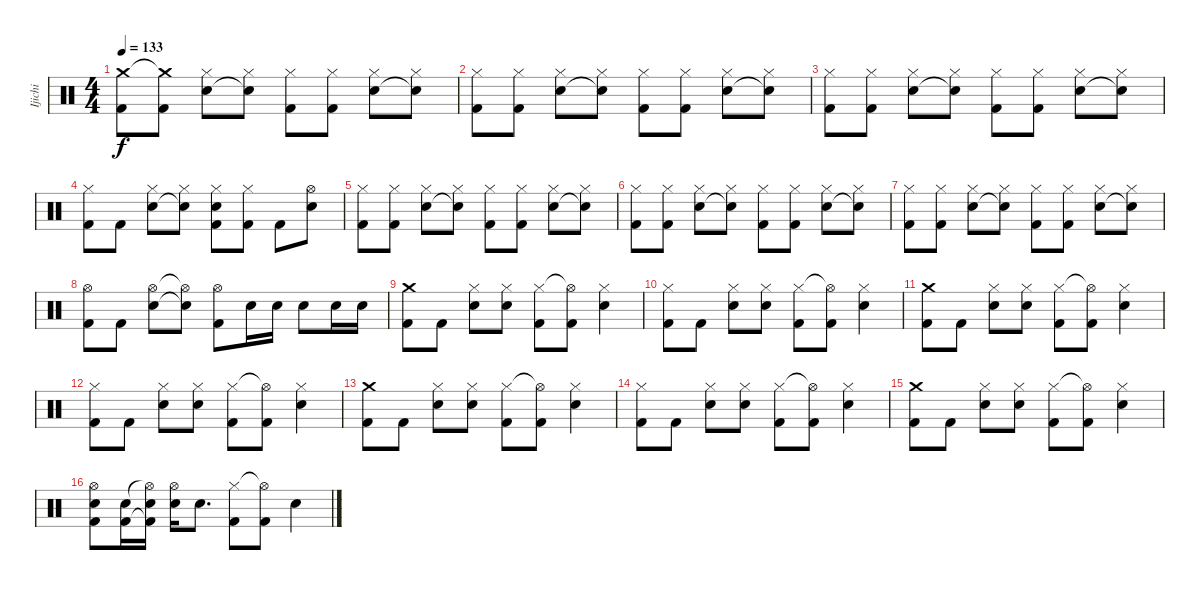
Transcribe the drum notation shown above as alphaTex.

\track ("Ijichi" "Ijichi") {instrument percussion}
\staff {score}
\articulation defaults
\ts (4 4)
\tempo 133
\clef neutral
\ks c
("Kick (hit) 2" "Crash medium (hit)").8{dy f} ("Kick (hit) 2" "Crash medium (hit)"{t}).8 ("Hi-Hat (closed)" "Electric Snare (hit)").8 ("Hi-Hat (closed)" "Electric Snare (hit)"{t}).8 ("Kick (hit) 2" "Hi-Hat (closed)").8 ("Kick (hit) 2" "Hi-Hat (closed)").8 ("Hi-Hat (closed)" "Electric Snare (hit)").8 ("Hi-Hat (closed)" "Electric Snare (hit)"{t}).8 |
("Kick (hit) 2" "Hi-Hat (closed)").8 ("Kick (hit) 2" "Hi-Hat (closed)").8 ("Hi-Hat (closed)" "Electric Snare (hit)").8 ("Hi-Hat (closed)" "Electric Snare (hit)"{t}).8 ("Kick (hit) 2" "Hi-Hat (closed)").8 ("Kick (hit) 2" "Hi-Hat (closed)").8 ("Hi-Hat (closed)" "Electric Snare (hit)").8 ("Hi-Hat (closed)" "Electric Snare (hit)"{t}).8 |
("Kick (hit) 2" "Hi-Hat (closed)").8 ("Kick (hit) 2" "Hi-Hat (closed)").8 ("Hi-Hat (closed)" "Electric Snare (hit)").8 ("Hi-Hat (closed)" "Electric Snare (hit)"{t}).8 ("Kick (hit) 2" "Hi-Hat (closed)").8 ("Kick (hit) 2" "Hi-Hat (closed)").8 ("Hi-Hat (closed)" "Electric Snare (hit)").8 ("Hi-Hat (closed)" "Electric Snare (hit)"{t}).8 |
("Kick (hit) 2" "Hi-Hat (closed)").8 "Kick (hit) 2".8 ("Hi-Hat (closed)" "Electric Snare (hit)").8 ("Hi-Hat (closed)" "Electric Snare (hit)"{t}).8 ("Kick (hit) 2" "Hi-Hat (closed)" "Electric Snare (hit)").8 ("Kick (hit) 2" "Hi-Hat (closed)").8 "Kick (hit) 2".8 ("Hi-Hat (open)" "Electric Snare (hit)").8 |
("Kick (hit) 2" "Hi-Hat (closed)").8 ("Kick (hit) 2" "Hi-Hat (closed)").8 ("Hi-Hat (closed)" "Electric Snare (hit)").8 ("Hi-Hat (closed)" "Electric Snare (hit)"{t}).8 ("Kick (hit) 2" "Hi-Hat (closed)").8 ("Kick (hit) 2" "Hi-Hat (closed)").8 ("Hi-Hat (closed)" "Electric Snare (hit)").8 ("Hi-Hat (closed)" "Electric Snare (hit)"{t}).8 |
("Kick (hit) 2" "Hi-Hat (closed)").8 ("Kick (hit) 2" "Hi-Hat (closed)").8 ("Hi-Hat (closed)" "Electric Snare (hit)").8 ("Hi-Hat (closed)" "Electric Snare (hit)"{t}).8 ("Kick (hit) 2" "Hi-Hat (closed)").8 ("Kick (hit) 2" "Hi-Hat (closed)").8 ("Hi-Hat (closed)" "Electric Snare (hit)").8 ("Hi-Hat (closed)" "Electric Snare (hit)"{t}).8 |
("Kick (hit) 2" "Hi-Hat (closed)").8 ("Kick (hit) 2" "Hi-Hat (closed)").8 ("Hi-Hat (closed)" "Electric Snare (hit)").8 ("Hi-Hat (closed)" "Electric Snare (hit)"{t}).8 ("Kick (hit) 2" "Hi-Hat (closed)").8 ("Kick (hit) 2" "Hi-Hat (closed)").8 ("Hi-Hat (closed)" "Electric Snare (hit)").8 ("Hi-Hat (closed)" "Electric Snare (hit)"{t}).8 |
("Kick (hit) 2" "Hi-Hat (open)").8 "Kick (hit) 2".8 ("Hi-Hat (open)" "Electric Snare (hit)").8 ("Hi-Hat (open)"{t} "Electric Snare (hit)"{t}).8 ("Kick (hit) 2" "Hi-Hat (open)").8 "Electric Snare (hit)".16 "Electric Snare (hit)".16 "Electric Snare (hit)".8 "Electric Snare (hit)".16 "Electric Snare (hit)".16 |
("Kick (hit) 2" "Crash medium (hit)").8 "Kick (hit) 2".8 ("Hi-Hat (closed)" "Electric Snare (hit)").8 ("Hi-Hat (closed)" "Electric Snare (hit)").8 ("Kick (hit) 2" "Hi-Hat (closed)").8 ("Kick (hit) 2" "Hi-Hat (open)"{t}).8 ("Hi-Hat (closed)" "Electric Snare (hit)").4 |
("Kick (hit) 2" "Hi-Hat (closed)").8 "Kick (hit) 2".8 ("Hi-Hat (closed)" "Electric Snare (hit)").8 ("Hi-Hat (closed)" "Electric Snare (hit)").8 ("Kick (hit) 2" "Hi-Hat (closed)").8 ("Kick (hit) 2" "Hi-Hat (open)"{t}).8 ("Hi-Hat (closed)" "Electric Snare (hit)").4 |
("Kick (hit) 2" "Crash medium (hit)").8 "Kick (hit) 2".8 ("Hi-Hat (closed)" "Electric Snare (hit)").8 ("Hi-Hat (closed)" "Electric Snare (hit)").8 ("Kick (hit) 2" "Hi-Hat (closed)").8 ("Kick (hit) 2" "Hi-Hat (open)"{t}).8 ("Hi-Hat (closed)" "Electric Snare (hit)").4 |
("Kick (hit) 2" "Hi-Hat (closed)").8 "Kick (hit) 2".8 ("Hi-Hat (closed)" "Electric Snare (hit)").8 ("Hi-Hat (closed)" "Electric Snare (hit)").8 ("Kick (hit) 2" "Hi-Hat (closed)").8 ("Kick (hit) 2" "Hi-Hat (open)"{t}).8 ("Hi-Hat (closed)" "Electric Snare (hit)").4 |
("Kick (hit) 2" "Crash medium (hit)").8 "Kick (hit) 2".8 ("Hi-Hat (closed)" "Electric Snare (hit)").8 ("Hi-Hat (closed)" "Electric Snare (hit)").8 ("Kick (hit) 2" "Hi-Hat (closed)").8 ("Kick (hit) 2" "Hi-Hat (open)"{t}).8 ("Hi-Hat (closed)" "Electric Snare (hit)").4 |
("Kick (hit) 2" "Hi-Hat (closed)").8 "Kick (hit) 2".8 ("Hi-Hat (closed)" "Electric Snare (hit)").8 ("Hi-Hat (closed)" "Electric Snare (hit)").8 ("Kick (hit) 2" "Hi-Hat (closed)").8 ("Kick (hit) 2" "Hi-Hat (open)"{t}).8 ("Hi-Hat (closed)" "Electric Snare (hit)").4 |
("Kick (hit) 2" "Crash medium (hit)").8 "Kick (hit) 2".8 ("Hi-Hat (closed)" "Electric Snare (hit)").8 ("Hi-Hat (closed)" "Electric Snare (hit)").8 ("Kick (hit) 2" "Hi-Hat (closed)").8 ("Kick (hit) 2" "Hi-Hat (open)"{t}).8 ("Hi-Hat (closed)" "Electric Snare (hit)").4 |
("Kick (hit) 2" "Hi-Hat (open)" "Electric Snare (hit)").8 ("Kick (hit) 2" "Electric Snare (hit)").16 ("Kick (hit) 2"{t} "Hi-Hat (open)"{t} "Electric Snare (hit)").16 ("Hi-Hat (open)" "Electric Snare (hit)").16 "Electric Snare (hit)".8{d} ("Kick (hit) 2" "Hi-Hat (closed)").8 ("Kick (hit) 2" "Hi-Hat (open)"{t}).8 "Electric Snare (hit)".4
